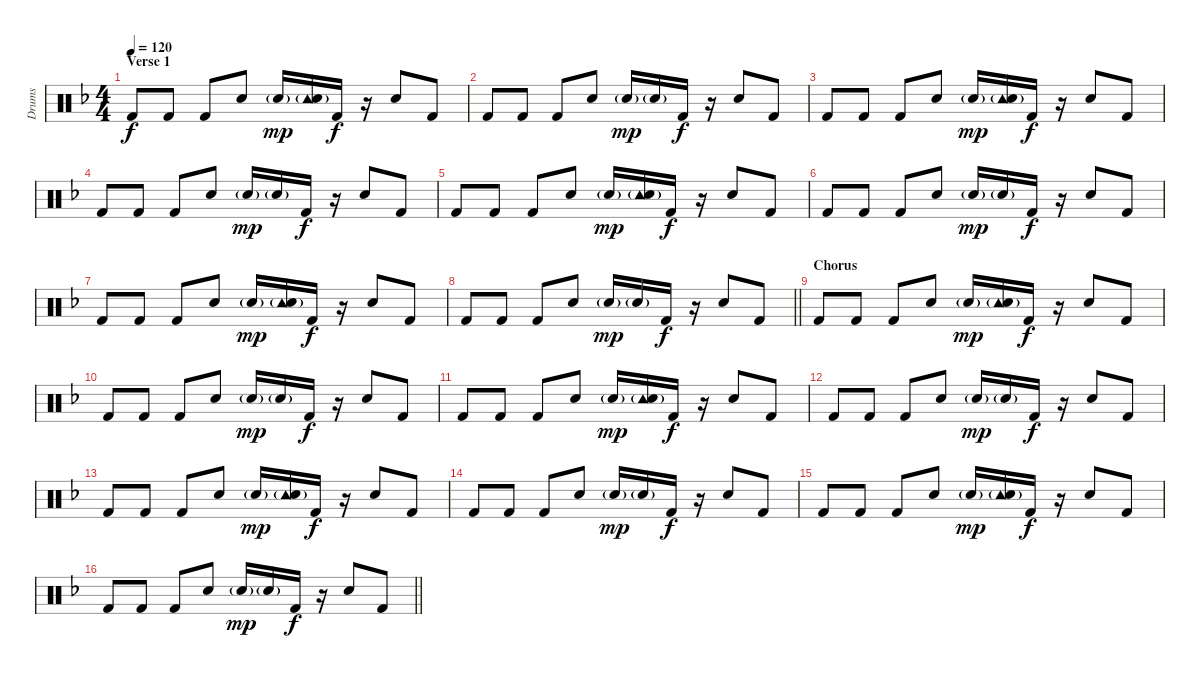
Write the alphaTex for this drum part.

\track ("Drums" "Drums") {instrument percussion}
\staff {score}
\articulation defaults
\ts (4 4)
\section ("" "Verse 1")
\tempo 120
\clef neutral
\ks f "Kick (hit) 2".8{dy f} "Kick (hit) 2".8 "Kick (hit) 2".8 "Snare (hit) 2".8 "Snare (hit) 2"{g}.16{dy mp}
("Tambourine (hit)" "Snare (hit) 2"{g}).16 "Kick (hit) 2".16{dy f} r.16 "Snare (hit) 2".8 "Kick (hit) 2".8 |
"Kick (hit) 2".8 "Kick (hit) 2".8 "Kick (hit) 2".8 "Snare (hit) 2".8 "Snare (hit) 2"{g}.16{dy mp} "Snare (hit) 2"{g}.16 "Kick (hit) 2".16{dy f} r.16 "Snare (hit) 2".8 "Kick (hit) 2".8 |
"Kick (hit) 2".8 "Kick (hit) 2".8 "Kick (hit) 2".8 "Snare (hit) 2".8 "Snare (hit) 2"{g}.16{dy mp} ("Tambourine (hit)" "Snare (hit) 2"{g}).16 "Kick (hit) 2".16{dy f} r.16 "Snare (hit) 2".8 "Kick (hit) 2".8 |
"Kick (hit) 2".8 "Kick (hit) 2".8 "Kick (hit) 2".8 "Snare (hit) 2".8 "Snare (hit) 2"{g}.16{dy mp} "Snare (hit) 2"{g}.16 "Kick (hit) 2".16{dy f} r.16 "Snare (hit) 2".8 "Kick (hit) 2".8 |
"Kick (hit) 2".8 "Kick (hit) 2".8 "Kick (hit) 2".8 "Snare (hit) 2".8 "Snare (hit) 2"{g}.16{dy mp} ("Tambourine (hit)" "Snare (hit) 2"{g}).16 "Kick (hit) 2".16{dy f} r.16 "Snare (hit) 2".8 "Kick (hit) 2".8 |
"Kick (hit) 2".8 "Kick (hit) 2".8 "Kick (hit) 2".8 "Snare (hit) 2".8 "Snare (hit) 2"{g}.16{dy mp} "Snare (hit) 2"{g}.16 "Kick (hit) 2".16{dy f} r.16 "Snare (hit) 2".8 "Kick (hit) 2".8 |
"Kick (hit) 2".8 "Kick (hit) 2".8 "Kick (hit) 2".8 "Snare (hit) 2".8 "Snare (hit) 2"{g}.16{dy mp} ("Tambourine (hit)" "Snare (hit) 2"{g}).16 "Kick (hit) 2".16{dy f} r.16 "Snare (hit) 2".8 "Kick (hit) 2".8 |
\barLineRight lightlight "Kick (hit) 2".8 "Kick (hit) 2".8 "Kick (hit) 2".8 "Snare (hit) 2".8 "Snare (hit) 2"{g}.16{dy mp} "Snare (hit) 2"{g}.16 "Kick (hit) 2".16{dy f}
r.16 "Snare (hit) 2".8 "Kick (hit) 2".8 |
\section ("" "Chorus")
"Kick (hit) 2".8 "Kick (hit) 2".8 "Kick (hit) 2".8 "Snare (hit) 2".8 "Snare (hit) 2"{g}.16{dy mp} ("Tambourine (hit)" "Snare (hit) 2"{g}).16 "Kick (hit) 2".16{dy f} r.16 "Snare (hit) 2".8 "Kick (hit) 2".8 |
"Kick (hit) 2".8 "Kick (hit) 2".8 "Kick (hit) 2".8 "Snare (hit) 2".8 "Snare (hit) 2"{g}.16{dy mp} "Snare (hit) 2"{g}.16 "Kick (hit) 2".16{dy f} r.16 "Snare (hit) 2".8 "Kick (hit) 2".8 |
"Kick (hit) 2".8 "Kick (hit) 2".8 "Kick (hit) 2".8 "Snare (hit) 2".8 "Snare (hit) 2"{g}.16{dy mp} ("Tambourine (hit)" "Snare (hit) 2"{g}).16 "Kick (hit) 2".16{dy f} r.16 "Snare (hit) 2".8 "Kick (hit) 2".8 |
"Kick (hit) 2".8 "Kick (hit) 2".8 "Kick (hit) 2".8 "Snare (hit) 2".8 "Snare (hit) 2"{g}.16{dy mp} "Snare (hit) 2"{g}.16 "Kick (hit) 2".16{dy f} r.16 "Snare (hit) 2".8 "Kick (hit) 2".8 |
"Kick (hit) 2".8 "Kick (hit) 2".8 "Kick (hit) 2".8 "Snare (hit) 2".8 "Snare (hit) 2"{g}.16{dy mp} ("Tambourine (hit)" "Snare (hit) 2"{g}).16 "Kick (hit) 2".16{dy f} r.16 "Snare (hit) 2".8 "Kick (hit) 2".8 |
"Kick (hit) 2".8 "Kick (hit) 2".8 "Kick (hit) 2".8 "Snare (hit) 2".8 "Snare (hit) 2"{g}.16{dy mp} "Snare (hit) 2"{g}.16 "Kick (hit) 2".16{dy f} r.16 "Snare (hit) 2".8 "Kick (hit) 2".8 |
"Kick (hit) 2".8 "Kick (hit) 2".8 "Kick (hit) 2".8 "Snare (hit) 2".8 "Snare (hit) 2"{g}.16{dy mp} ("Tambourine (hit)" "Snare (hit) 2"{g}).16 "Kick (hit) 2".16{dy f} r.16 "Snare (hit) 2".8 "Kick (hit) 2".8 |
\barLineRight lightlight "Kick (hit) 2".8 "Kick (hit) 2".8 "Kick (hit) 2".8 "Snare (hit) 2".8 "Snare (hit) 2"{g}.16{dy mp} "Snare (hit) 2"{g}.16 "Kick (hit) 2".16{dy f}
r.16 "Snare (hit) 2".8 "Kick (hit) 2".8
